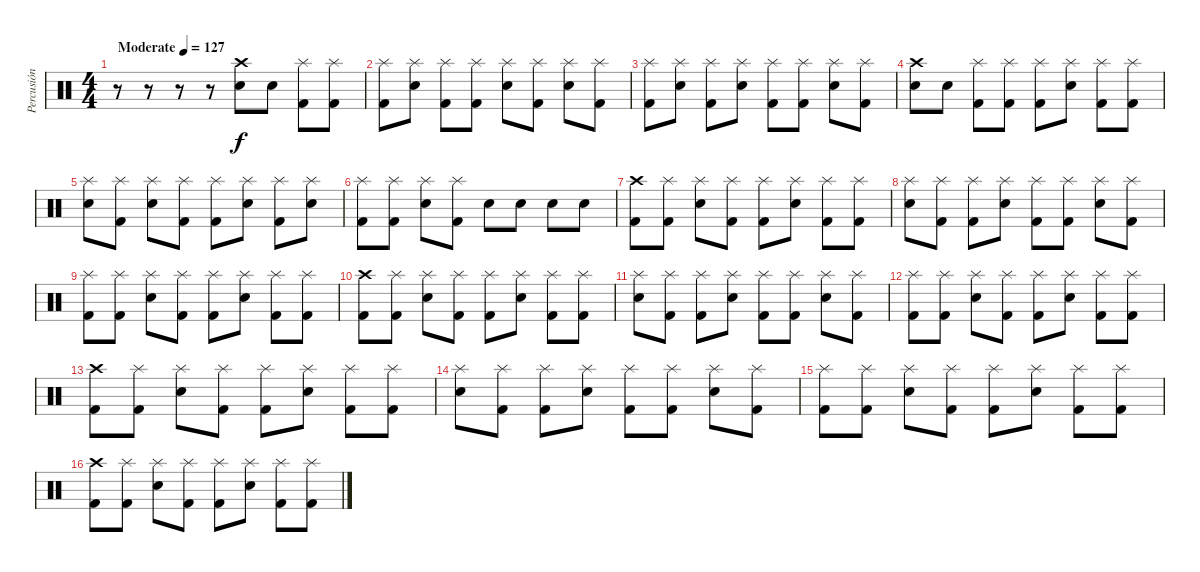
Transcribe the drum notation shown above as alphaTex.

\track ("Percusión" "Percusión") {instrument percussion}
\staff {score}
\articulation defaults
\ts (4 4)
\tempo (127 "Moderate")
\clef neutral
\ks c
r.8{dy f} r.8 r.8 r.8 ("Crash high (hit)" "Electric Snare (hit)").8 "Electric Snare (hit)".8 ("Splash (hit)" "Kick (hit) 2").8 ("Splash (hit)" "Kick (hit) 2").8 |
("Splash (hit)" "Kick (hit) 2").8 ("Splash (hit)" "Electric Snare (hit)").8 ("Splash (hit)" "Kick (hit) 2").8 ("Splash (hit)" "Kick (hit) 2").8 ("Splash (hit)" "Electric Snare (hit)").8 ("Splash (hit)" "Kick (hit) 2").8 ("Splash (hit)" "Electric Snare (hit)").8 ("Splash (hit)" "Kick (hit) 2").8 |
("Splash (hit)" "Kick (hit) 2").8 ("Splash (hit)" "Electric Snare (hit)").8 ("Splash (hit)" "Kick (hit) 2").8 ("Splash (hit)" "Electric Snare (hit)").8 ("Splash (hit)" "Kick (hit) 2").8 ("Splash (hit)" "Kick (hit) 2").8 ("Splash (hit)" "Electric Snare (hit)").8 ("Splash (hit)" "Kick (hit) 2").8 |
("Crash high (hit)" "Electric Snare (hit)").8 "Electric Snare (hit)".8 ("Splash (hit)" "Kick (hit) 2").8 ("Splash (hit)" "Kick (hit) 2").8 ("Splash (hit)" "Kick (hit) 2").8 ("Splash (hit)" "Electric Snare (hit)").8 ("Splash (hit)" "Kick (hit) 2").8 ("Splash (hit)" "Kick (hit) 2").8 |
("Splash (hit)" "Electric Snare (hit)").8 ("Splash (hit)" "Kick (hit) 2").8 ("Splash (hit)" "Electric Snare (hit)").8 ("Splash (hit)" "Kick (hit) 2").8 ("Splash (hit)" "Kick (hit) 2").8 ("Splash (hit)" "Electric Snare (hit)").8 ("Splash (hit)" "Kick (hit) 2").8 ("Splash (hit)" "Electric Snare (hit)").8 |
("Splash (hit)" "Kick (hit) 2").8 ("Splash (hit)" "Kick (hit) 2").8 ("Splash (hit)" "Electric Snare (hit)").8 ("Splash (hit)" "Kick (hit) 2").8 "Electric Snare (hit)".8 "Electric Snare (hit)".8 "Electric Snare (hit)".8 "Electric Snare (hit)".8 |
("Crash high (hit)" "Kick (hit) 2").8 ("Splash (hit)" "Kick (hit) 2").8 ("Splash (hit)" "Electric Snare (hit)").8 ("Splash (hit)" "Kick (hit) 2").8 ("Splash (hit)" "Kick (hit) 2").8 ("Splash (hit)" "Electric Snare (hit)").8 ("Splash (hit)" "Kick (hit) 2").8 ("Splash (hit)" "Kick (hit) 2").8 |
("Splash (hit)" "Electric Snare (hit)").8 ("Splash (hit)" "Kick (hit) 2").8 ("Splash (hit)" "Kick (hit) 2").8 ("Splash (hit)" "Electric Snare (hit)").8 ("Splash (hit)" "Kick (hit) 2").8 ("Splash (hit)" "Kick (hit) 2").8 ("Splash (hit)" "Electric Snare (hit)").8 ("Splash (hit)" "Kick (hit) 2").8 |
("Splash (hit)" "Kick (hit) 2").8 ("Splash (hit)" "Kick (hit) 2").8 ("Splash (hit)" "Electric Snare (hit)").8 ("Splash (hit)" "Kick (hit) 2").8 ("Splash (hit)" "Kick (hit) 2").8 ("Splash (hit)" "Electric Snare (hit)").8 ("Splash (hit)" "Kick (hit) 2").8 ("Splash (hit)" "Kick (hit) 2").8 |
("Crash high (hit)" "Kick (hit) 2").8 ("Splash (hit)" "Kick (hit) 2").8 ("Splash (hit)" "Electric Snare (hit)").8 ("Splash (hit)" "Kick (hit) 2").8 ("Splash (hit)" "Kick (hit) 2").8 ("Splash (hit)" "Electric Snare (hit)").8 ("Splash (hit)" "Kick (hit) 2").8 ("Splash (hit)" "Kick (hit) 2").8 |
("Splash (hit)" "Electric Snare (hit)").8 ("Splash (hit)" "Kick (hit) 2").8 ("Splash (hit)" "Kick (hit) 2").8 ("Splash (hit)" "Electric Snare (hit)").8 ("Splash (hit)" "Kick (hit) 2").8 ("Splash (hit)" "Kick (hit) 2").8 ("Splash (hit)" "Electric Snare (hit)").8 ("Splash (hit)" "Kick (hit) 2").8 |
("Splash (hit)" "Kick (hit) 2").8 ("Splash (hit)" "Kick (hit) 2").8 ("Splash (hit)" "Electric Snare (hit)").8 ("Splash (hit)" "Kick (hit) 2").8 ("Splash (hit)" "Kick (hit) 2").8 ("Splash (hit)" "Electric Snare (hit)").8 ("Splash (hit)" "Kick (hit) 2").8 ("Splash (hit)" "Kick (hit) 2").8 |
("Crash high (hit)" "Kick (hit) 2").8 ("Splash (hit)" "Kick (hit) 2").8 ("Splash (hit)" "Electric Snare (hit)").8 ("Splash (hit)" "Kick (hit) 2").8 ("Splash (hit)" "Kick (hit) 2").8 ("Splash (hit)" "Electric Snare (hit)").8 ("Splash (hit)" "Kick (hit) 2").8 ("Splash (hit)" "Kick (hit) 2").8 |
("Splash (hit)" "Electric Snare (hit)").8 ("Splash (hit)" "Kick (hit) 2").8 ("Splash (hit)" "Kick (hit) 2").8 ("Splash (hit)" "Electric Snare (hit)").8 ("Splash (hit)" "Kick (hit) 2").8 ("Splash (hit)" "Kick (hit) 2").8 ("Splash (hit)" "Electric Snare (hit)").8 ("Splash (hit)" "Kick (hit) 2").8 |
("Splash (hit)" "Kick (hit) 2").8 ("Splash (hit)" "Kick (hit) 2").8 ("Splash (hit)" "Electric Snare (hit)").8 ("Splash (hit)" "Kick (hit) 2").8 ("Splash (hit)" "Kick (hit) 2").8 ("Splash (hit)" "Electric Snare (hit)").8 ("Splash (hit)" "Kick (hit) 2").8 ("Splash (hit)" "Kick (hit) 2").8 |
("Crash high (hit)" "Kick (hit) 2").8 ("Splash (hit)" "Kick (hit) 2").8 ("Splash (hit)" "Electric Snare (hit)").8 ("Splash (hit)" "Kick (hit) 2").8 ("Splash (hit)" "Kick (hit) 2").8 ("Splash (hit)" "Electric Snare (hit)").8 ("Splash (hit)" "Kick (hit) 2").8 ("Splash (hit)" "Kick (hit) 2").8
